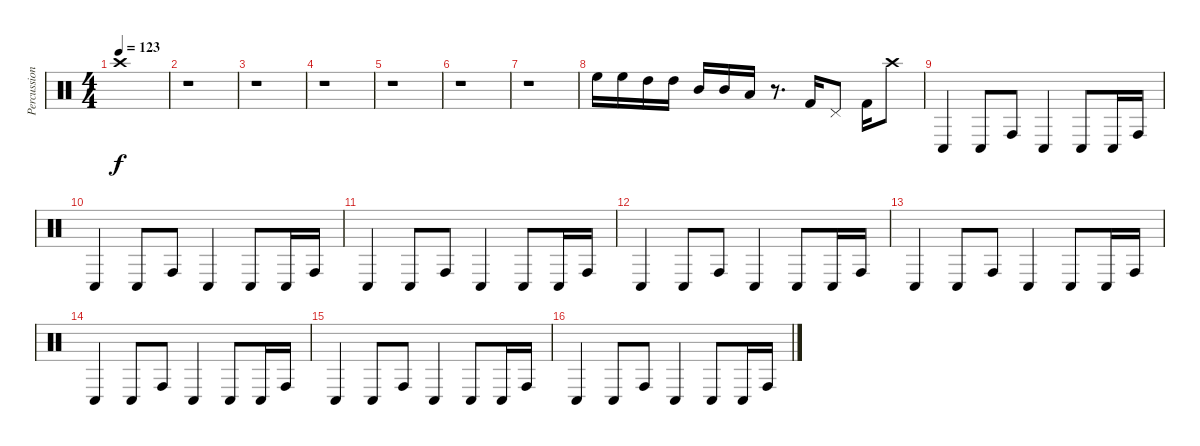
\track ("Percussion" "Percussion") {instrument percussion}
\staff {score}
\articulation defaults
\ts (4 4)
\tempo 123
\clef neutral
\ks c "Crash high (hit)".1{dy f}
|
r.1 |
r.1 |
r.1 |
r.1 |
r.1 |
r.1 |
"High Floor Tom (hit)".16 "High Floor Tom (hit)".16 "High Tom (hit)".16 "High Tom (hit)".16 "Mid Tom (hit)".16 "Mid Tom (hit)".16 "Low Tom (hit)".16 r.8{d} "Kick (hit) 2".16 "Pedal Hi-Hat (hit)".8 "Kick (hit) 2".16 "Crash high (hit)".8 |
"Conga low (hit)".4 "Conga low (hit)".8 "Conga high (hit)".8 "Conga low (hit)".4 "Conga low (hit)".8 "Conga low (hit)".16 "Conga high (hit)".16 |
"Conga low (hit)".4 "Conga low (hit)".8 "Conga high (hit)".8 "Conga low (hit)".4 "Conga low (hit)".8 "Conga low (hit)".16 "Conga high (hit)".16 |
"Conga low (hit)".4 "Conga low (hit)".8 "Conga high (hit)".8 "Conga low (hit)".4 "Conga low (hit)".8 "Conga low (hit)".16 "Conga high (hit)".16 |
"Conga low (hit)".4 "Conga low (hit)".8 "Conga high (hit)".8 "Conga low (hit)".4 "Conga low (hit)".8 "Conga low (hit)".16 "Conga high (hit)".16 |
"Conga low (hit)".4 "Conga low (hit)".8 "Conga high (hit)".8 "Conga low (hit)".4 "Conga low (hit)".8 "Conga low (hit)".16 "Conga high (hit)".16 |
"Conga low (hit)".4 "Conga low (hit)".8 "Conga high (hit)".8 "Conga low (hit)".4 "Conga low (hit)".8 "Conga low (hit)".16 "Conga high (hit)".16 |
"Conga low (hit)".4 "Conga low (hit)".8 "Conga high (hit)".8 "Conga low (hit)".4 "Conga low (hit)".8 "Conga low (hit)".16 "Conga high (hit)".16 |
"Conga low (hit)".4 "Conga low (hit)".8 "Conga high (hit)".8 "Conga low (hit)".4 "Conga low (hit)".8 "Conga low (hit)".16 "Conga high (hit)".16
